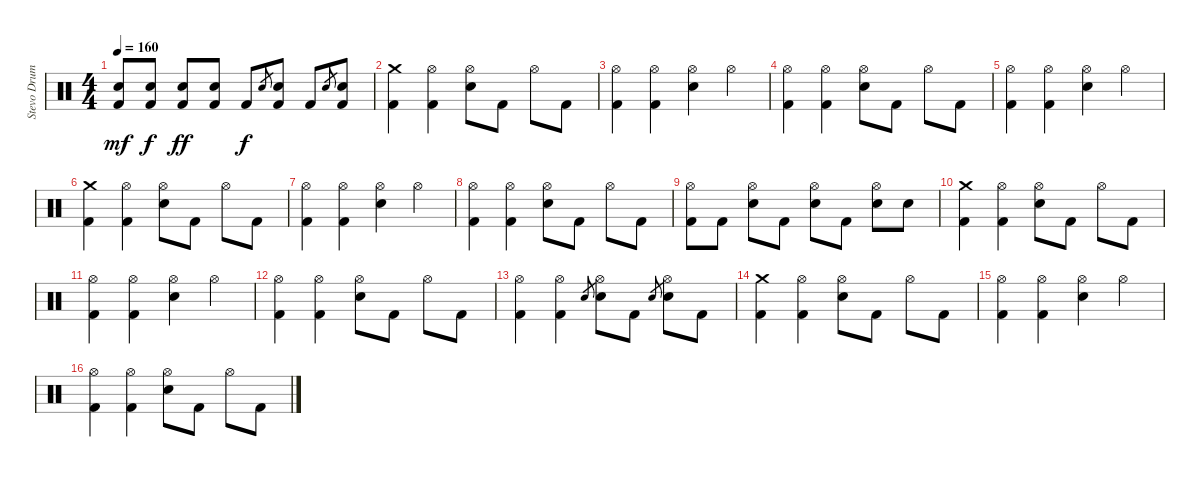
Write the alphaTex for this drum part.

\track ("Stevo Drums" "Stevo Drum") {instrument percussion}
\staff {score}
\articulation defaults
\ts (4 4)
\tempo 160
\clef neutral
\ks c
("Electric Snare (hit)" "Kick (hit) 2").8{dy mf} ("Electric Snare (hit)" "Kick (hit) 2").8{dy f} ("Electric Snare (hit)" "Kick (hit) 2").8{dy ff} ("Electric Snare (hit)" "Kick (hit) 2").8 "Kick (hit) 2".8{dy f} "Electric Snare (hit)".8{gr} ("Electric Snare (hit)" "Kick (hit) 2").8 "Kick (hit) 2".8 "Electric Snare (hit)".8{gr} ("Electric Snare (hit)" "Kick (hit) 2").8 |
("Crash medium (hit)" "Kick (hit) 2").4 ("Hi-Hat (open)" "Kick (hit) 2").4 ("Electric Snare (hit)" "Hi-Hat (open)").8 "Kick (hit) 2".8 "Hi-Hat (open)".8 "Kick (hit) 2".8 |
("Hi-Hat (open)" "Kick (hit) 2").4 ("Hi-Hat (open)" "Kick (hit) 2").4 ("Electric Snare (hit)" "Hi-Hat (open)").4 "Hi-Hat (open)".4 |
("Hi-Hat (open)" "Kick (hit) 2").4 ("Hi-Hat (open)" "Kick (hit) 2").4 ("Electric Snare (hit)" "Hi-Hat (open)").8 "Kick (hit) 2".8 "Hi-Hat (open)".8 "Kick (hit) 2".8 |
("Hi-Hat (open)" "Kick (hit) 2").4 ("Hi-Hat (open)" "Kick (hit) 2").4 ("Electric Snare (hit)" "Hi-Hat (open)").4 "Hi-Hat (open)".4 |
("Crash medium (hit)" "Kick (hit) 2").4 ("Hi-Hat (open)" "Kick (hit) 2").4 ("Electric Snare (hit)" "Hi-Hat (open)").8 "Kick (hit) 2".8 "Hi-Hat (open)".8 "Kick (hit) 2".8 |
("Hi-Hat (open)" "Kick (hit) 2").4 ("Hi-Hat (open)" "Kick (hit) 2").4 ("Electric Snare (hit)" "Hi-Hat (open)").4 "Hi-Hat (open)".4 |
("Hi-Hat (open)" "Kick (hit) 2").4 ("Hi-Hat (open)" "Kick (hit) 2").4 ("Electric Snare (hit)" "Hi-Hat (open)").8 "Kick (hit) 2".8 "Hi-Hat (open)".8 "Kick (hit) 2".8 |
("Hi-Hat (open)" "Kick (hit) 2").8 "Kick (hit) 2".8 ("Hi-Hat (open)" "Electric Snare (hit)").8 "Kick (hit) 2".8 ("Hi-Hat (open)" "Electric Snare (hit)").8 "Kick (hit) 2".8 ("Hi-Hat (open)" "Electric Snare (hit)").8 "Electric Snare (hit)".8 |
("Crash medium (hit)" "Kick (hit) 2").4 ("Hi-Hat (open)" "Kick (hit) 2").4 ("Electric Snare (hit)" "Hi-Hat (open)").8 "Kick (hit) 2".8 "Hi-Hat (open)".8 "Kick (hit) 2".8 |
("Hi-Hat (open)" "Kick (hit) 2").4 ("Hi-Hat (open)" "Kick (hit) 2").4 ("Electric Snare (hit)" "Hi-Hat (open)").4 "Hi-Hat (open)".4 |
("Hi-Hat (open)" "Kick (hit) 2").4 ("Hi-Hat (open)" "Kick (hit) 2").4 ("Electric Snare (hit)" "Hi-Hat (open)").8 "Kick (hit) 2".8 "Hi-Hat (open)".8 "Kick (hit) 2".8 |
("Hi-Hat (open)" "Kick (hit) 2").4 ("Hi-Hat (open)" "Kick (hit) 2").4 "Electric Snare (hit)".8{gr} ("Electric Snare (hit)" "Hi-Hat (open)").8 "Kick (hit) 2".8 "Electric Snare (hit)".8{gr} ("Hi-Hat (open)" "Electric Snare (hit)").8 "Kick (hit) 2".8 |
("Crash medium (hit)" "Kick (hit) 2").4 ("Hi-Hat (open)" "Kick (hit) 2").4 ("Electric Snare (hit)" "Hi-Hat (open)").8 "Kick (hit) 2".8 "Hi-Hat (open)".8 "Kick (hit) 2".8 |
("Hi-Hat (open)" "Kick (hit) 2").4 ("Hi-Hat (open)" "Kick (hit) 2").4 ("Electric Snare (hit)" "Hi-Hat (open)").4 "Hi-Hat (open)".4 |
("Hi-Hat (open)" "Kick (hit) 2").4 ("Hi-Hat (open)" "Kick (hit) 2").4 ("Electric Snare (hit)" "Hi-Hat (open)").8 "Kick (hit) 2".8 "Hi-Hat (open)".8 "Kick (hit) 2".8
